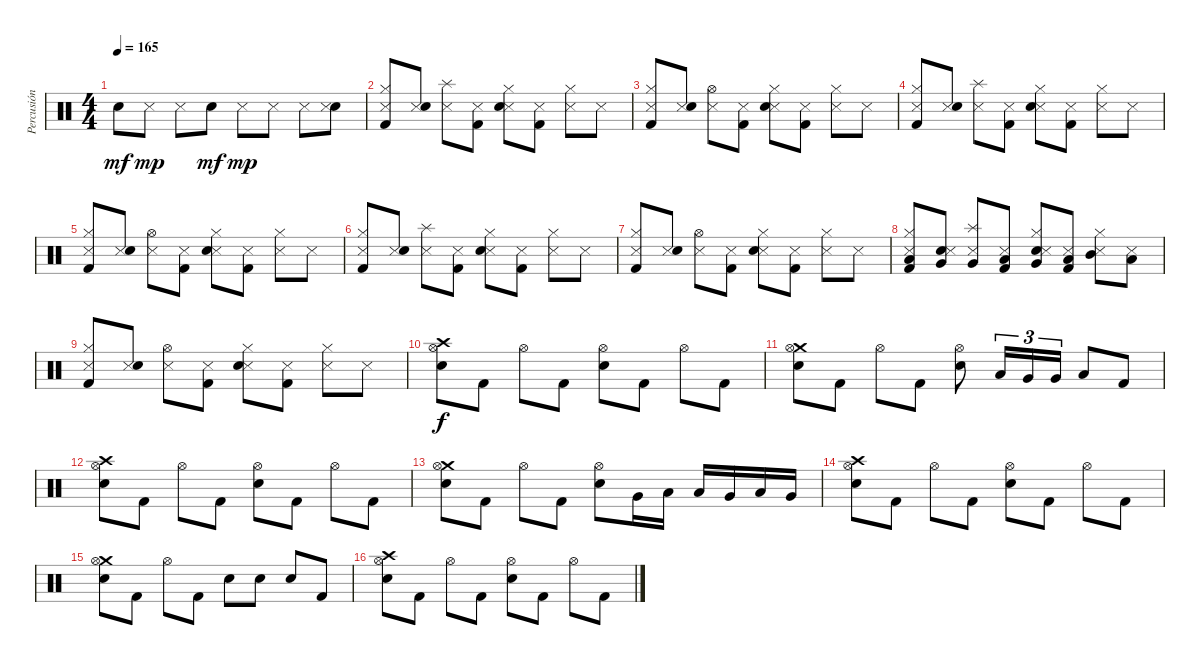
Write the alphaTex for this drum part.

\track ("Percusión" "Percusión") {instrument percussion}
\staff {score}
\articulation defaults
\ts (4 4)
\tempo 165
\clef neutral
\ks c "Electric Snare (hit)".8{dy mf} "Snare (side stick) 3".8{dy mp} "Snare (side stick) 3".8 "Electric Snare (hit)".8{dy mf} "Snare (side stick) 3".8{dy mp} "Snare (side stick) 3".8 "Snare (side stick) 3".8
("Electric Snare (hit)" "Snare (side stick) 3").8 |
("Snare (side stick) 3" "Hi-Hat (closed)" "Kick (hit) 2").8 ("Snare (side stick) 3" "Electric Snare (hit)").8 ("Snare (side stick) 3" "Splash (hit)").8 ("Snare (side stick) 3" "Kick (hit) 2").8 ("Snare (side stick) 3" "Hi-Hat (closed)" "Electric Snare (hit)").8 ("Snare (side stick) 3" "Kick (hit) 2").8 ("Snare (side stick) 3" "Hi-Hat (closed)").8 "Snare (side stick) 3".8 |
("Snare (side stick) 3" "Hi-Hat (closed)" "Kick (hit) 2").8 ("Snare (side stick) 3" "Electric Snare (hit)").8 ("Snare (side stick) 3" "Hi-Hat (open)").8 ("Snare (side stick) 3" "Kick (hit) 2").8 ("Snare (side stick) 3" "Hi-Hat (closed)" "Electric Snare (hit)").8 ("Snare (side stick) 3" "Kick (hit) 2").8 ("Snare (side stick) 3" "Hi-Hat (closed)").8 "Snare (side stick) 3".8 |
("Snare (side stick) 3" "Hi-Hat (closed)" "Kick (hit) 2").8 ("Snare (side stick) 3" "Electric Snare (hit)").8 ("Snare (side stick) 3" "Splash (hit)").8 ("Snare (side stick) 3" "Kick (hit) 2").8 ("Snare (side stick) 3" "Hi-Hat (closed)" "Electric Snare (hit)").8 ("Snare (side stick) 3" "Kick (hit) 2").8 ("Snare (side stick) 3" "Hi-Hat (closed)").8 "Snare (side stick) 3".8 |
("Snare (side stick) 3" "Hi-Hat (closed)" "Kick (hit) 2").8 ("Snare (side stick) 3" "Electric Snare (hit)").8 ("Snare (side stick) 3" "Hi-Hat (open)").8 ("Snare (side stick) 3" "Kick (hit) 2").8 ("Snare (side stick) 3" "Hi-Hat (closed)" "Electric Snare (hit)").8 ("Snare (side stick) 3" "Kick (hit) 2").8 ("Snare (side stick) 3" "Hi-Hat (closed)").8 "Snare (side stick) 3".8 |
("Snare (side stick) 3" "Hi-Hat (closed)" "Kick (hit) 2").8 ("Snare (side stick) 3" "Electric Snare (hit)").8 ("Snare (side stick) 3" "Splash (hit)").8 ("Snare (side stick) 3" "Kick (hit) 2").8 ("Snare (side stick) 3" "Hi-Hat (closed)" "Electric Snare (hit)").8 ("Snare (side stick) 3" "Kick (hit) 2").8 ("Snare (side stick) 3" "Hi-Hat (closed)").8 "Snare (side stick) 3".8 |
("Snare (side stick) 3" "Hi-Hat (closed)" "Kick (hit) 2").8 ("Snare (side stick) 3" "Electric Snare (hit)").8 ("Snare (side stick) 3" "Hi-Hat (open)").8 ("Snare (side stick) 3" "Kick (hit) 2").8 ("Snare (side stick) 3" "Hi-Hat (closed)" "Electric Snare (hit)").8 ("Snare (side stick) 3" "Kick (hit) 2").8 ("Snare (side stick) 3" "Hi-Hat (closed)").8 "Snare (side stick) 3".8 |
("Hi-Hat (closed)" "Low Floor Tom (hit)" "Kick (hit) 2" "Snare (side stick) 3").8 ("Very Low Tom (hit)" "Electric Snare (hit)" "Snare (side stick) 3").8 ("Splash (hit)" "Very Low Tom (hit)" "Snare (side stick) 3").8 ("Low Floor Tom (hit)" "Kick (hit) 2" "Snare (side stick) 3").8 ("Hi-Hat (closed)" "Very Low Tom (hit)" "Electric Snare (hit)" "Snare (side stick) 3").8 ("Low Tom (hit)" "Kick (hit) 2" "Snare (side stick) 3").8 ("Hi-Hat (closed)" "Mid Tom (hit)" "Snare (side stick) 3").8 ("Low Tom (hit)" "Snare (side stick) 3").8 |
("Snare (side stick) 3" "Hi-Hat (closed)" "Kick (hit) 2").8 ("Snare (side stick) 3" "Electric Snare (hit)").8 ("Snare (side stick) 3" "Hi-Hat (open)").8 ("Snare (side stick) 3" "Kick (hit) 2").8 ("Snare (side stick) 3" "Hi-Hat (closed)" "Electric Snare (hit)").8 ("Snare (side stick) 3" "Kick (hit) 2").8 ("Snare (side stick) 3" "Hi-Hat (closed)").8 "Snare (side stick) 3".8 |
("Crash high (hit)" "Hi-Hat (open)" "Snare (hit) 2").8{dy f} "Kick (hit) 2".8 "Hi-Hat (open)".8 "Kick (hit) 2".8 ("Hi-Hat (open)" "Snare (hit) 2").8 "Kick (hit) 2".8 "Hi-Hat (open)".8 "Kick (hit) 2".8 |
("Crash medium (hit)" "Hi-Hat (open)" "Snare (hit) 2").8 "Kick (hit) 2".8 "Hi-Hat (open)".8 "Kick (hit) 2".8 ("Hi-Hat (open)" "Snare (hit) 2").8 "Low Tom (hit)".16{tu (3 2)} "Very Low Tom (hit)".16{tu (3 2)} "Very Low Tom (hit)".16{tu (3 2)} "Low Tom (hit)".8 "Kick (hit) 2".8 |
("Crash high (hit)" "Hi-Hat (open)" "Snare (hit) 2").8 "Kick (hit) 2".8 "Hi-Hat (open)".8 "Kick (hit) 2".8 ("Hi-Hat (open)" "Snare (hit) 2").8 "Kick (hit) 2".8 "Hi-Hat (open)".8 "Kick (hit) 2".8 |
("Crash medium (hit)" "Hi-Hat (open)" "Snare (hit) 2").8 "Kick (hit) 2".8 "Hi-Hat (open)".8 "Kick (hit) 2".8 ("Hi-Hat (open)" "Snare (hit) 2").8 "Very Low Tom (hit)".16 "Low Tom (hit)".16 "Low Floor Tom (hit)".16 "Very Low Tom (hit)".16 "Low Tom (hit)".16 "Very Low Tom (hit)".16 |
("Crash high (hit)" "Hi-Hat (open)" "Snare (hit) 2").8 "Kick (hit) 2".8 "Hi-Hat (open)".8 "Kick (hit) 2".8 ("Hi-Hat (open)" "Snare (hit) 2").8 "Kick (hit) 2".8 "Hi-Hat (open)".8 "Kick (hit) 2".8 |
("Crash medium (hit)" "Hi-Hat (open)" "Snare (hit) 2").8 "Kick (hit) 2".8 "Hi-Hat (open)".8 "Kick (hit) 2".8 "Snare (hit) 2".8 "Snare (hit) 2".8 "Snare (hit) 2".8 "Kick (hit) 2".8 |
("Crash high (hit)" "Hi-Hat (open)" "Snare (hit) 2").8 "Kick (hit) 2".8 "Hi-Hat (open)".8 "Kick (hit) 2".8 ("Hi-Hat (open)" "Snare (hit) 2").8 "Kick (hit) 2".8 "Hi-Hat (open)".8 "Kick (hit) 2".8
